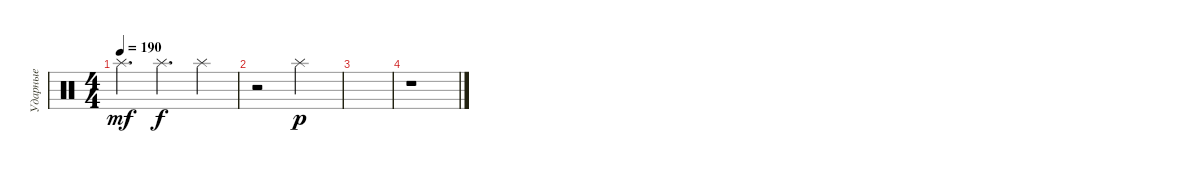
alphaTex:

\track ("Ударные" "Ударные") {instrument percussion}
\staff {score}
\articulation defaults
\ts (4 4)
\tempo 190
\clef neutral
\ks c "Splash (hit)".4{d dy mf} "Splash (hit)".4{d dy f} "Splash (hit)".4
|
r.2 "Splash (hit)".2{dy p} |
|
r.1
